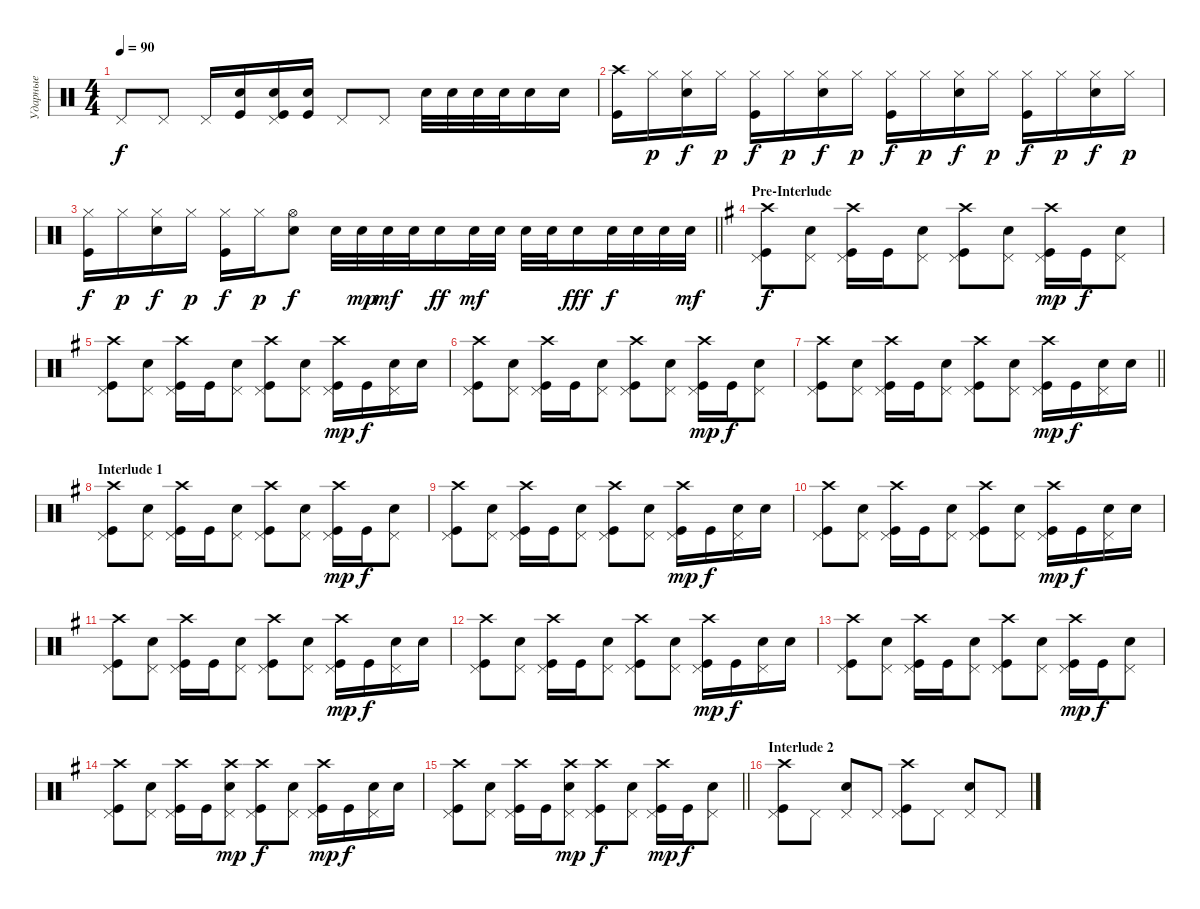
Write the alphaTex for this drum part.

\track ("Ударные" "Ударные") {instrument percussion}
\staff {score}
\articulation defaults
\ts (4 4)
\tempo 90
\clef neutral
\ks c "Pedal Hi-Hat (hit)".8{dy f} "Pedal Hi-Hat (hit)".8 "Pedal Hi-Hat (hit)".16
("Kick (hit)" "Snare (hit) 2").16 ("Kick (hit)" "Snare (hit) 2" "Pedal Hi-Hat (hit)").16 ("Kick (hit)" "Snare (hit) 2").16 "Pedal Hi-Hat (hit)".8 "Pedal Hi-Hat (hit)".8 "Snare (hit) 2".32 "Snare (hit) 2".32 "Snare (hit) 2".32 "Snare (hit) 2".32 "Snare (hit) 2".16{bd 480} "Snare (hit) 2".16 |
("Kick (hit)" "Crash high (hit)").16 "Hi-Hat (closed)".16{dy p} ("Hi-Hat (closed)" "Snare (hit) 2").16{dy f} "Hi-Hat (closed)".16{dy p} ("Hi-Hat (closed)" "Kick (hit)").16{dy f} "Hi-Hat (closed)".16{dy p} ("Hi-Hat (closed)" "Snare (hit) 2").16{dy f} "Hi-Hat (closed)".16{dy p} ("Hi-Hat (closed)" "Kick (hit)").16{dy f} "Hi-Hat (closed)".16{dy p} ("Hi-Hat (closed)" "Snare (hit) 2").16{dy f} "Hi-Hat (closed)".16{dy p} ("Hi-Hat (closed)" "Kick (hit)").16{dy f} "Hi-Hat (closed)".16{dy p} ("Hi-Hat (closed)" "Snare (hit) 2").16{dy f} "Hi-Hat (closed)".16{dy p} |
\barLineRight lightlight
("Kick (hit)" "Hi-Hat (closed)").16{dy f} "Hi-Hat (closed)".16{dy p} ("Hi-Hat (closed)" "Snare (hit) 2").16{dy f} "Hi-Hat (closed)".16{dy p} ("Hi-Hat (closed)" "Kick (hit)").16{dy f} "Hi-Hat (closed)".16{dy p} ("Hi-Hat (open)" "Snare (hit) 2").8{dy f} "Snare (hit) 2".32 "Snare (hit) 2".32{dy mp} "Snare (hit) 2".32{dy mf} "Snare (hit) 2".32 "Snare (hit) 2".16{dy ff} "Snare (hit) 2".32{dy mf} "Snare (hit) 2".32 "Snare (hit) 2".32 "Snare (hit) 2".32 "Snare (hit) 2".16{dy fff} "Snare (hit) 2".32{dy f} "Snare (hit) 2".32 "Snare (hit) 2".32 "Snare (hit) 2".32{dy mf} |
\section ("" "Pre-Interlude")
\ks eminor
("Kick (hit)" "Crash high (hit)" "Pedal Hi-Hat (hit)").8{dy f} ("Snare (hit) 2" "Pedal Hi-Hat (hit)").8 ("Kick (hit)" "Crash high (hit)" "Pedal Hi-Hat (hit)").16 "Kick (hit)".16 ("Snare (hit) 2" "Pedal Hi-Hat (hit)").8 ("Kick (hit)" "Crash high (hit)" "Pedal Hi-Hat (hit)").8 ("Snare (hit) 2" "Pedal Hi-Hat (hit)").8 ("Kick (hit)" "Crash high (hit)" "Pedal Hi-Hat (hit)").16{dy mp} "Kick (hit)".16{dy f} ("Snare (hit) 2" "Pedal Hi-Hat (hit)").8 |
("Kick (hit)" "Crash high (hit)" "Pedal Hi-Hat (hit)").8 ("Snare (hit) 2" "Pedal Hi-Hat (hit)").8 ("Kick (hit)" "Crash high (hit)" "Pedal Hi-Hat (hit)").16 "Kick (hit)".16 ("Snare (hit) 2" "Pedal Hi-Hat (hit)").8 ("Kick (hit)" "Crash high (hit)" "Pedal Hi-Hat (hit)").8 ("Snare (hit) 2" "Pedal Hi-Hat (hit)").8 ("Kick (hit)" "Crash high (hit)" "Pedal Hi-Hat (hit)").16{dy mp} "Kick (hit)".16{dy f} ("Snare (hit) 2" "Pedal Hi-Hat (hit)").16 "Snare (hit) 2".16 |
("Kick (hit)" "Crash high (hit)" "Pedal Hi-Hat (hit)").8 ("Snare (hit) 2" "Pedal Hi-Hat (hit)").8 ("Kick (hit)" "Crash high (hit)" "Pedal Hi-Hat (hit)").16 "Kick (hit)".16 ("Snare (hit) 2" "Pedal Hi-Hat (hit)").8 ("Kick (hit)" "Crash high (hit)" "Pedal Hi-Hat (hit)").8 ("Snare (hit) 2" "Pedal Hi-Hat (hit)").8 ("Kick (hit)" "Crash high (hit)" "Pedal Hi-Hat (hit)").16{dy mp} "Kick (hit)".16{dy f} ("Snare (hit) 2" "Pedal Hi-Hat (hit)").8 |
\barLineRight lightlight
("Kick (hit)" "Crash high (hit)" "Pedal Hi-Hat (hit)").8 ("Snare (hit) 2" "Pedal Hi-Hat (hit)").8 ("Kick (hit)" "Crash high (hit)" "Pedal Hi-Hat (hit)").16 "Kick (hit)".16 ("Snare (hit) 2" "Pedal Hi-Hat (hit)").8 ("Kick (hit)" "Crash high (hit)" "Pedal Hi-Hat (hit)").8 ("Snare (hit) 2" "Pedal Hi-Hat (hit)").8 ("Kick (hit)" "Crash high (hit)" "Pedal Hi-Hat (hit)").16{dy mp} "Kick (hit)".16{dy f} ("Snare (hit) 2" "Pedal Hi-Hat (hit)").16 "Snare (hit) 2".16 |
\section ("" "Interlude 1")
("Kick (hit)" "Crash high (hit)" "Pedal Hi-Hat (hit)").8 ("Snare (hit) 2" "Pedal Hi-Hat (hit)").8 ("Kick (hit)" "Crash high (hit)" "Pedal Hi-Hat (hit)").16 "Kick (hit)".16 ("Snare (hit) 2" "Pedal Hi-Hat (hit)").8 ("Kick (hit)" "Crash high (hit)" "Pedal Hi-Hat (hit)").8 ("Snare (hit) 2" "Pedal Hi-Hat (hit)").8 ("Kick (hit)" "Crash high (hit)" "Pedal Hi-Hat (hit)").16{dy mp} "Kick (hit)".16{dy f} ("Snare (hit) 2" "Pedal Hi-Hat (hit)").8 |
("Kick (hit)" "Crash high (hit)" "Pedal Hi-Hat (hit)").8 ("Snare (hit) 2" "Pedal Hi-Hat (hit)").8 ("Kick (hit)" "Crash high (hit)" "Pedal Hi-Hat (hit)").16 "Kick (hit)".16 ("Snare (hit) 2" "Pedal Hi-Hat (hit)").8 ("Kick (hit)" "Crash high (hit)" "Pedal Hi-Hat (hit)").8 ("Snare (hit) 2" "Pedal Hi-Hat (hit)").8 ("Kick (hit)" "Crash high (hit)" "Pedal Hi-Hat (hit)").16{dy mp} "Kick (hit)".16{dy f} ("Snare (hit) 2" "Pedal Hi-Hat (hit)").16 "Snare (hit) 2".16 |
("Kick (hit)" "Crash high (hit)" "Pedal Hi-Hat (hit)").8 ("Snare (hit) 2" "Pedal Hi-Hat (hit)").8 ("Kick (hit)" "Crash high (hit)" "Pedal Hi-Hat (hit)").16 "Kick (hit)".16 ("Snare (hit) 2" "Pedal Hi-Hat (hit)").8 ("Kick (hit)" "Crash high (hit)" "Pedal Hi-Hat (hit)").8 ("Snare (hit) 2" "Pedal Hi-Hat (hit)").8 ("Kick (hit)" "Crash high (hit)" "Pedal Hi-Hat (hit)").16{dy mp} "Kick (hit)".16{dy f} ("Snare (hit) 2" "Pedal Hi-Hat (hit)").16 "Snare (hit) 2".16 |
("Kick (hit)" "Crash high (hit)" "Pedal Hi-Hat (hit)").8 ("Snare (hit) 2" "Pedal Hi-Hat (hit)").8 ("Kick (hit)" "Crash high (hit)" "Pedal Hi-Hat (hit)").16 "Kick (hit)".16 ("Snare (hit) 2" "Pedal Hi-Hat (hit)").8 ("Kick (hit)" "Crash high (hit)" "Pedal Hi-Hat (hit)").8 ("Snare (hit) 2" "Pedal Hi-Hat (hit)").8 ("Kick (hit)" "Crash high (hit)" "Pedal Hi-Hat (hit)").16{dy mp} "Kick (hit)".16{dy f} ("Snare (hit) 2" "Pedal Hi-Hat (hit)").16 "Snare (hit) 2".16 |
("Kick (hit)" "Crash high (hit)" "Pedal Hi-Hat (hit)").8 ("Snare (hit) 2" "Pedal Hi-Hat (hit)").8 ("Kick (hit)" "Crash high (hit)" "Pedal Hi-Hat (hit)").16 "Kick (hit)".16 ("Snare (hit) 2" "Pedal Hi-Hat (hit)").8 ("Kick (hit)" "Crash high (hit)" "Pedal Hi-Hat (hit)").8 ("Snare (hit) 2" "Pedal Hi-Hat (hit)").8 ("Kick (hit)" "Crash high (hit)" "Pedal Hi-Hat (hit)").16{dy mp} "Kick (hit)".16{dy f} ("Snare (hit) 2" "Pedal Hi-Hat (hit)").16 "Snare (hit) 2".16 |
("Kick (hit)" "Crash high (hit)" "Pedal Hi-Hat (hit)").8 ("Snare (hit) 2" "Pedal Hi-Hat (hit)").8 ("Kick (hit)" "Crash high (hit)" "Pedal Hi-Hat (hit)").16 "Kick (hit)".16 ("Snare (hit) 2" "Pedal Hi-Hat (hit)").8 ("Kick (hit)" "Crash high (hit)" "Pedal Hi-Hat (hit)").8 ("Snare (hit) 2" "Pedal Hi-Hat (hit)").8 ("Kick (hit)" "Crash high (hit)" "Pedal Hi-Hat (hit)").16{dy mp} "Kick (hit)".16{dy f} ("Snare (hit) 2" "Pedal Hi-Hat (hit)").8 |
("Kick (hit)" "Crash high (hit)" "Pedal Hi-Hat (hit)").8 ("Snare (hit) 2" "Pedal Hi-Hat (hit)").8 ("Kick (hit)" "Crash high (hit)" "Pedal Hi-Hat (hit)").16 "Kick (hit)".16 ("Snare (hit) 2" "Crash high (hit)" "Pedal Hi-Hat (hit)").8{dy mp} ("Kick (hit)" "Crash high (hit)" "Pedal Hi-Hat (hit)").8{dy f} ("Snare (hit) 2" "Pedal Hi-Hat (hit)").8 ("Kick (hit)" "Crash high (hit)" "Pedal Hi-Hat (hit)").16{dy mp} "Kick (hit)".16{dy f} ("Snare (hit) 2" "Pedal Hi-Hat (hit)").16 "Snare (hit) 2".16 |
\barLineRight lightlight
("Kick (hit)" "Crash high (hit)" "Pedal Hi-Hat (hit)").8 ("Snare (hit) 2" "Pedal Hi-Hat (hit)").8 ("Kick (hit)" "Crash high (hit)" "Pedal Hi-Hat (hit)").16 "Kick (hit)".16 ("Snare (hit) 2" "Crash high (hit)" "Pedal Hi-Hat (hit)").8{dy mp} ("Kick (hit)" "Crash high (hit)" "Pedal Hi-Hat (hit)").8{dy f} ("Snare (hit) 2" "Pedal Hi-Hat (hit)").8 ("Kick (hit)" "Crash high (hit)" "Pedal Hi-Hat (hit)").16{dy mp} "Kick (hit)".16{dy f} ("Snare (hit) 2" "Pedal Hi-Hat (hit)").8 |
\section ("" "Interlude 2")
("Kick (hit)" "Crash high (hit)" "Pedal Hi-Hat (hit)").8 "Pedal Hi-Hat (hit)".8 ("Pedal Hi-Hat (hit)" "Snare (hit) 2").8 "Pedal Hi-Hat (hit)".8 ("Kick (hit)" "Pedal Hi-Hat (hit)" "Crash high (hit)").8 "Pedal Hi-Hat (hit)".8 ("Snare (hit) 2" "Pedal Hi-Hat (hit)").8 "Pedal Hi-Hat (hit)".8
